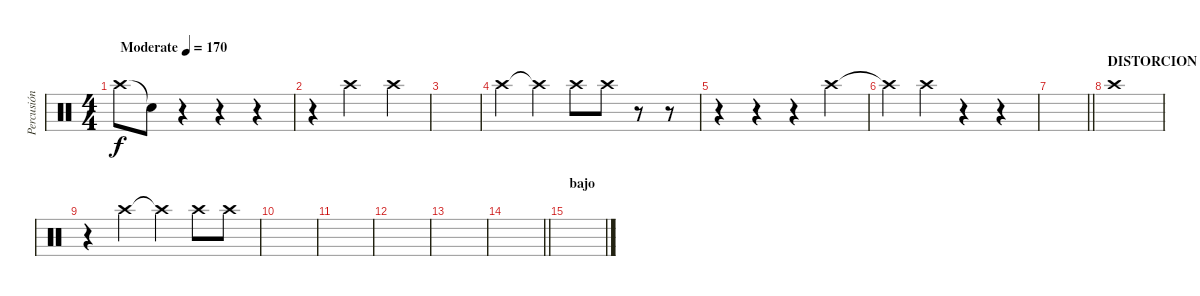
\track ("Percusión" "Percusión") {instrument percussion}
\staff {score}
\articulation defaults
\ts (4 4)
\tempo (170 "Moderate")
\clef neutral
\ks c "Crash high (hit)".8{dy f} "Snare (hit) 2"{t}.8
r.4 r.4 r.4 |
r.4 "Crash high (hit)".2 "Crash high (hit)".4 |
|
"Crash high (hit)".4 "Crash high (hit)"{t}.4 "Crash high (hit)".8 "Crash high (hit)".8 r.8 r.8 |
r.4 r.4 r.4 "Crash high (hit)".4 |
"Crash high (hit)"{t}.4 "Crash high (hit)".4 r.4 r.4 |
\barLineRight lightlight
|
\section ("" "DISTORCION")
"Crash high (hit)".1 |
r.4 "Crash high (hit)".4 "Crash high (hit)"{t}.4 "Crash high (hit)".8 "Crash high (hit)".8 |
|
|
|
|
\barLineRight lightlight
|
\section ("" "bajo")
